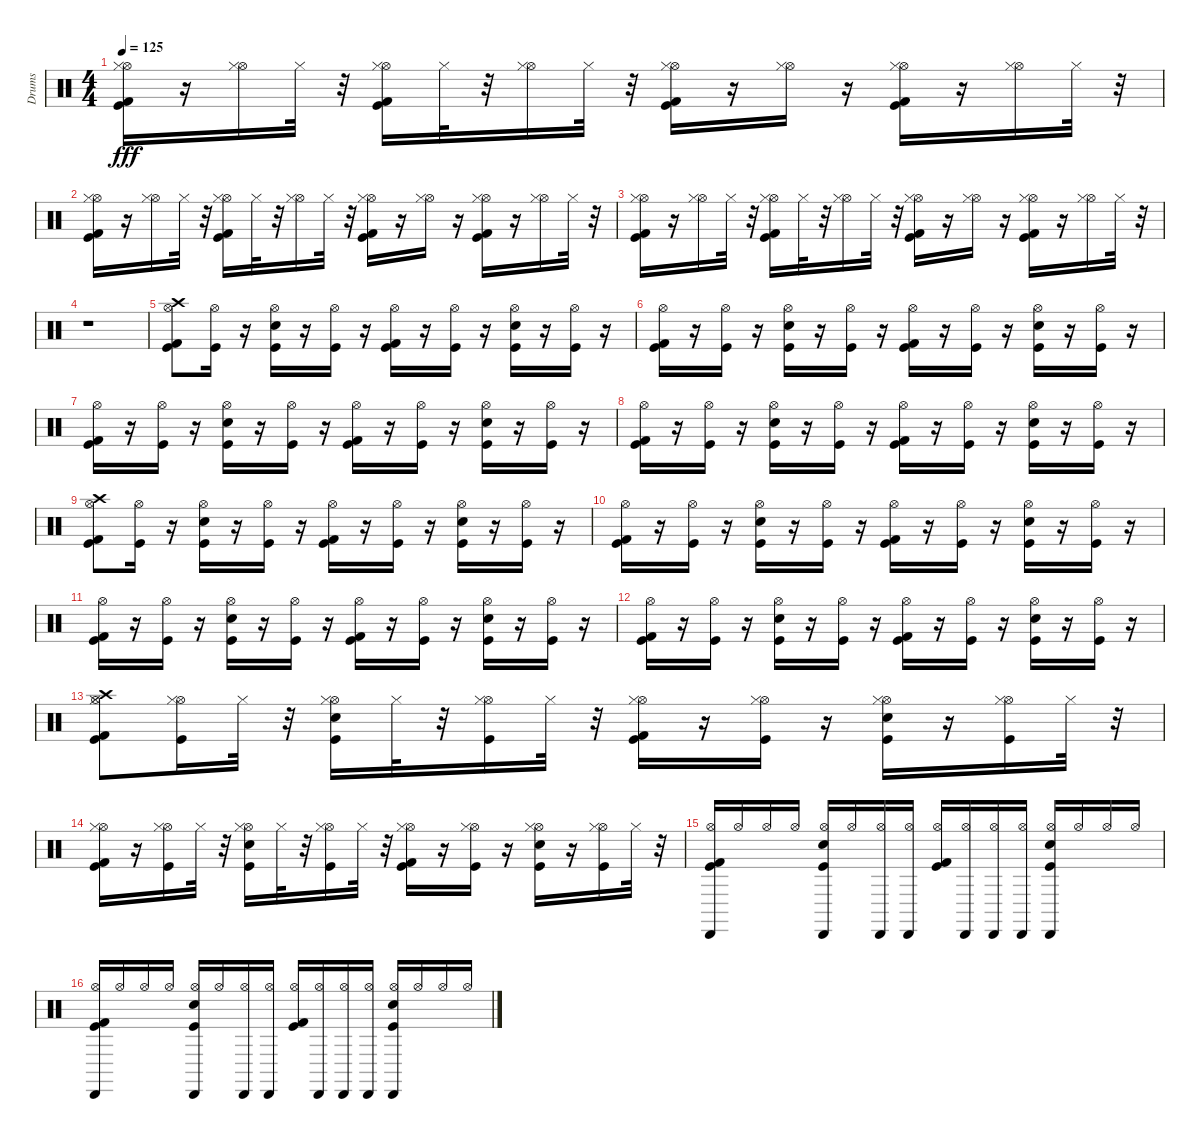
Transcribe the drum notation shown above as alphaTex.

\track ("Drums" "Drums") {instrument percussion}
\staff {score}
\articulation defaults
\ts (4 4)
\tempo 125
\clef neutral
\ks c
("Kick (hit)" "Kick (hit) 2" "Hi-Hat (open)" "Hi-Hat (closed)").16{dy fff} r.16 ("Hi-Hat (open)" "Hi-Hat (closed)").16 "Hi-Hat (closed)".32 r.32 ("Kick (hit) 2" "Kick (hit)" "Hi-Hat (open)" "Hi-Hat (closed)").16 "Hi-Hat (closed)".32 r.32 ("Hi-Hat (open)" "Hi-Hat (closed)").16 "Hi-Hat (closed)".32 r.32 ("Kick (hit) 2" "Kick (hit)" "Hi-Hat (open)" "Hi-Hat (closed)").16 r.16 ("Hi-Hat (open)" "Hi-Hat (closed)").16 r.16 ("Kick (hit) 2" "Kick (hit)" "Hi-Hat (open)" "Hi-Hat (closed)").16 r.16 ("Hi-Hat (open)" "Hi-Hat (closed)").16 "Hi-Hat (closed)".32 r.32 |
("Hi-Hat (open)" "Kick (hit) 2" "Kick (hit)" "Hi-Hat (closed)").16 r.16 ("Hi-Hat (open)" "Hi-Hat (closed)").16 "Hi-Hat (closed)".32 r.32 ("Kick (hit) 2" "Kick (hit)" "Hi-Hat (open)" "Hi-Hat (closed)").16 "Hi-Hat (closed)".32 r.32 ("Hi-Hat (open)" "Hi-Hat (closed)").16 "Hi-Hat (closed)".32 r.32 ("Kick (hit) 2" "Kick (hit)" "Hi-Hat (open)" "Hi-Hat (closed)").16 r.16 ("Hi-Hat (open)" "Hi-Hat (closed)").16 r.16 ("Kick (hit) 2" "Kick (hit)" "Hi-Hat (open)" "Hi-Hat (closed)").16 r.16 ("Hi-Hat (open)" "Hi-Hat (closed)").16 "Hi-Hat (closed)".32 r.32 |
("Hi-Hat (open)" "Kick (hit) 2" "Kick (hit)" "Hi-Hat (closed)").16 r.16 ("Hi-Hat (open)" "Hi-Hat (closed)").16 "Hi-Hat (closed)".32 r.32 ("Kick (hit) 2" "Kick (hit)" "Hi-Hat (open)" "Hi-Hat (closed)").16 "Hi-Hat (closed)".32 r.32 ("Hi-Hat (open)" "Hi-Hat (closed)").16 "Hi-Hat (closed)".32 r.32 ("Kick (hit) 2" "Kick (hit)" "Hi-Hat (open)" "Hi-Hat (closed)").16 r.16 ("Hi-Hat (open)" "Hi-Hat (closed)").16 r.16 ("Kick (hit) 2" "Kick (hit)" "Hi-Hat (open)" "Hi-Hat (closed)").16 r.16 ("Hi-Hat (open)" "Hi-Hat (closed)").16 "Hi-Hat (closed)".32 r.32 |
r.1 |
("Kick (hit) 2" "Kick (hit)" "Hi-Hat (open)" "Crash high (hit)").8 ("Kick (hit)" "Hi-Hat (open)").16 r.16 ("Kick (hit)" "Snare (hit) 2" "Hi-Hat (open)").16 r.16 ("Kick (hit)" "Hi-Hat (open)").16 r.16 ("Kick (hit) 2" "Kick (hit)" "Hi-Hat (open)").16 r.16 ("Kick (hit)" "Hi-Hat (open)").16 r.16 ("Kick (hit)" "Snare (hit) 2" "Hi-Hat (open)").16 r.16 ("Kick (hit)" "Hi-Hat (open)").16 r.16 |
("Kick (hit) 2" "Kick (hit)" "Hi-Hat (open)").16 r.16 ("Kick (hit)" "Hi-Hat (open)").16 r.16 ("Kick (hit)" "Snare (hit) 2" "Hi-Hat (open)").16 r.16 ("Kick (hit)" "Hi-Hat (open)").16 r.16 ("Kick (hit) 2" "Kick (hit)" "Hi-Hat (open)").16 r.16 ("Kick (hit)" "Hi-Hat (open)").16 r.16 ("Kick (hit)" "Snare (hit) 2" "Hi-Hat (open)").16 r.16 ("Kick (hit)" "Hi-Hat (open)").16 r.16 |
("Kick (hit) 2" "Kick (hit)" "Hi-Hat (open)").16 r.16 ("Kick (hit)" "Hi-Hat (open)").16 r.16 ("Kick (hit)" "Snare (hit) 2" "Hi-Hat (open)").16 r.16 ("Kick (hit)" "Hi-Hat (open)").16 r.16 ("Kick (hit) 2" "Kick (hit)" "Hi-Hat (open)").16 r.16 ("Kick (hit)" "Hi-Hat (open)").16 r.16 ("Kick (hit)" "Snare (hit) 2" "Hi-Hat (open)").16 r.16 ("Kick (hit)" "Hi-Hat (open)").16 r.16 |
("Kick (hit) 2" "Kick (hit)" "Hi-Hat (open)").16 r.16 ("Kick (hit)" "Hi-Hat (open)").16 r.16 ("Kick (hit)" "Snare (hit) 2" "Hi-Hat (open)").16 r.16 ("Kick (hit)" "Hi-Hat (open)").16 r.16 ("Kick (hit) 2" "Kick (hit)" "Hi-Hat (open)").16 r.16 ("Kick (hit)" "Hi-Hat (open)").16 r.16 ("Kick (hit)" "Snare (hit) 2" "Hi-Hat (open)").16 r.16 ("Kick (hit)" "Hi-Hat (open)").16 r.16 |
("Kick (hit) 2" "Kick (hit)" "Hi-Hat (open)" "Crash high (hit)").8 ("Kick (hit)" "Hi-Hat (open)").16 r.16 ("Kick (hit)" "Snare (hit) 2" "Hi-Hat (open)").16 r.16 ("Kick (hit)" "Hi-Hat (open)").16 r.16 ("Kick (hit) 2" "Kick (hit)" "Hi-Hat (open)").16 r.16 ("Kick (hit)" "Hi-Hat (open)").16 r.16 ("Kick (hit)" "Snare (hit) 2" "Hi-Hat (open)").16 r.16 ("Kick (hit)" "Hi-Hat (open)").16 r.16 |
("Kick (hit) 2" "Kick (hit)" "Hi-Hat (open)").16 r.16 ("Kick (hit)" "Hi-Hat (open)").16 r.16 ("Kick (hit)" "Snare (hit) 2" "Hi-Hat (open)").16 r.16 ("Kick (hit)" "Hi-Hat (open)").16 r.16 ("Kick (hit) 2" "Kick (hit)" "Hi-Hat (open)").16 r.16 ("Kick (hit)" "Hi-Hat (open)").16 r.16 ("Kick (hit)" "Snare (hit) 2" "Hi-Hat (open)").16 r.16 ("Kick (hit)" "Hi-Hat (open)").16 r.16 |
("Kick (hit) 2" "Kick (hit)" "Hi-Hat (open)").16 r.16 ("Kick (hit)" "Hi-Hat (open)").16 r.16 ("Kick (hit)" "Snare (hit) 2" "Hi-Hat (open)").16 r.16 ("Kick (hit)" "Hi-Hat (open)").16 r.16 ("Kick (hit) 2" "Kick (hit)" "Hi-Hat (open)").16 r.16 ("Kick (hit)" "Hi-Hat (open)").16 r.16 ("Kick (hit)" "Snare (hit) 2" "Hi-Hat (open)").16 r.16 ("Kick (hit)" "Hi-Hat (open)").16 r.16 |
("Kick (hit) 2" "Kick (hit)" "Hi-Hat (open)").16 r.16 ("Kick (hit)" "Hi-Hat (open)").16 r.16 ("Kick (hit)" "Snare (hit) 2" "Hi-Hat (open)").16 r.16 ("Kick (hit)" "Hi-Hat (open)").16 r.16 ("Kick (hit) 2" "Kick (hit)" "Hi-Hat (open)").16 r.16 ("Kick (hit)" "Hi-Hat (open)").16 r.16 ("Kick (hit)" "Snare (hit) 2" "Hi-Hat (open)").16 r.16 ("Kick (hit)" "Hi-Hat (open)").16 r.16 |
("Kick (hit)" "Kick (hit) 2" "Hi-Hat (open)" "Crash high (hit)" "Hi-Hat (closed)").8 ("Kick (hit)" "Hi-Hat (open)" "Hi-Hat (closed)").16 "Hi-Hat (closed)".32 r.32 ("Kick (hit)" "Snare (hit) 2" "Hi-Hat (open)" "Hi-Hat (closed)").16 "Hi-Hat (closed)".32 r.32 ("Kick (hit)" "Hi-Hat (open)" "Hi-Hat (closed)").16 "Hi-Hat (closed)".32 r.32 ("Kick (hit)" "Kick (hit) 2" "Hi-Hat (open)" "Hi-Hat (closed)").16 r.16 ("Kick (hit)" "Hi-Hat (open)" "Hi-Hat (closed)").16 r.16 ("Kick (hit)" "Snare (hit) 2" "Hi-Hat (open)" "Hi-Hat (closed)").16 r.16 ("Kick (hit)" "Hi-Hat (open)" "Hi-Hat (closed)").16 "Hi-Hat (closed)".32 r.32 |
("Kick (hit)" "Kick (hit) 2" "Hi-Hat (open)" "Hi-Hat (closed)").16 r.16 ("Kick (hit)" "Hi-Hat (open)" "Hi-Hat (closed)").16 "Hi-Hat (closed)".32 r.32 ("Kick (hit)" "Snare (hit) 2" "Hi-Hat (open)" "Hi-Hat (closed)").16 "Hi-Hat (closed)".32 r.32 ("Kick (hit)" "Hi-Hat (open)" "Hi-Hat (closed)").16 "Hi-Hat (closed)".32 r.32 ("Kick (hit)" "Kick (hit) 2" "Hi-Hat (open)" "Hi-Hat (closed)").16 r.16 ("Kick (hit)" "Hi-Hat (open)" "Hi-Hat (closed)").16 r.16 ("Kick (hit)" "Snare (hit) 2" "Hi-Hat (open)" "Hi-Hat (closed)").16 r.16 ("Kick (hit)" "Hi-Hat (open)" "Hi-Hat (closed)").16 "Hi-Hat (closed)".32 r.32 |
("Kick (hit) 2" "Kick (hit)" "Cabasa (hit)" "Hi-Hat (open)").16 "Hi-Hat (open)".16 "Hi-Hat (open)".16 "Hi-Hat (open)".16 ("Kick (hit)" "Cabasa (hit)" "Snare (hit) 2" "Hi-Hat (open)").16 "Hi-Hat (open)".16 ("Cabasa (hit)" "Hi-Hat (open)").16 ("Cabasa (hit)" "Hi-Hat (open)").16 ("Kick (hit) 2" "Kick (hit)" "Hi-Hat (open)").16 ("Cabasa (hit)" "Hi-Hat (open)").16 ("Cabasa (hit)" "Hi-Hat (open)").16 ("Cabasa (hit)" "Hi-Hat (open)").16 ("Kick (hit)" "Cabasa (hit)" "Snare (hit) 2" "Hi-Hat (open)").16 "Hi-Hat (open)".16 "Hi-Hat (open)".16 "Hi-Hat (open)".16 |
("Kick (hit) 2" "Kick (hit)" "Cabasa (hit)" "Hi-Hat (open)").16 "Hi-Hat (open)".16 "Hi-Hat (open)".16 "Hi-Hat (open)".16 ("Kick (hit)" "Cabasa (hit)" "Snare (hit) 2" "Hi-Hat (open)").16 "Hi-Hat (open)".16 ("Cabasa (hit)" "Hi-Hat (open)").16 ("Cabasa (hit)" "Hi-Hat (open)").16 ("Kick (hit) 2" "Kick (hit)" "Hi-Hat (open)").16 ("Cabasa (hit)" "Hi-Hat (open)").16 ("Cabasa (hit)" "Hi-Hat (open)").16 ("Cabasa (hit)" "Hi-Hat (open)").16 ("Kick (hit)" "Cabasa (hit)" "Snare (hit) 2" "Hi-Hat (open)").16 "Hi-Hat (open)".16 "Hi-Hat (open)".16 "Hi-Hat (open)".16
